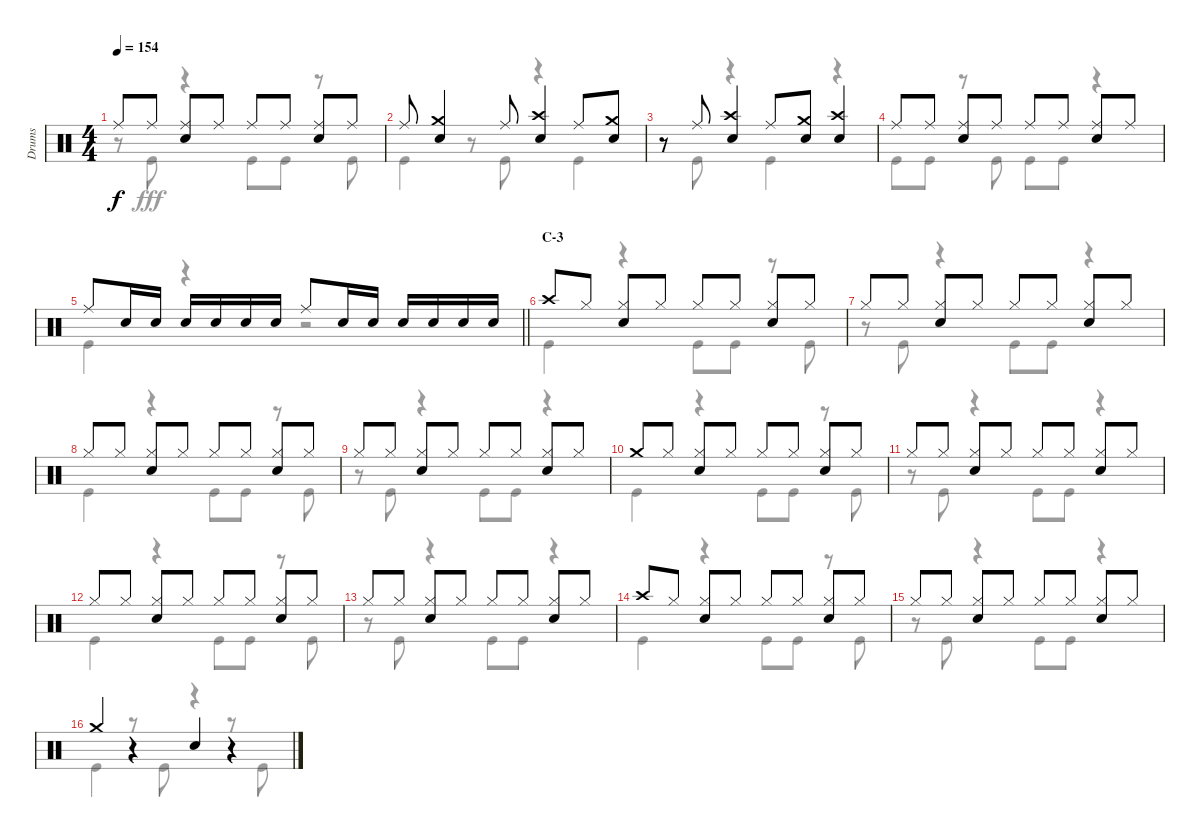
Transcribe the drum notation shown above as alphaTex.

\track ("Drums" "Drums") {instrument percussion}
\staff {score}
\articulation defaults
\voice
\ts (4 4)
\tempo 154
\clef neutral
\ks c "Ride (middle)".8{dy f} "Ride (middle)".8
("Ride (middle)" "Snare (hit) 2").8 "Ride (middle)".8 "Ride (middle)".8 "Ride (middle)".8 ("Ride (middle)" "Snare (hit) 2").8 "Ride (middle)".8 |
"Ride (middle)".8 ("Crash medium (hit)" "Snare (hit) 2").4 "Ride (middle)".8 ("Crash high (hit)" "Snare (hit) 2").4 "Ride (middle)".8 ("Crash medium (hit)" "Snare (hit) 2").8 |
r.8 "Ride (middle)".8 ("Crash high (hit)" "Snare (hit) 2").4 "Ride (middle)".8 ("Crash medium (hit)" "Snare (hit) 2").8 ("Crash high (hit)" "Snare (hit) 2").4 |
"Ride (middle)".8 "Ride (middle)".8 ("Ride (middle)" "Snare (hit) 2").8 "Ride (middle)".8 "Ride (middle)".8 "Ride (middle)".8 ("Ride (middle)" "Snare (hit) 2").8 "Ride (middle)".8 |
\barLineRight lightlight "Ride (middle)".8 "Snare (hit) 2".16 "Snare (hit) 2".16 "Snare (hit) 2".16 "Snare (hit) 2".16 "Snare (hit) 2".16 "Snare (hit) 2".16 "Ride (middle)".8 "Snare (hit) 2".16 "Snare (hit) 2".16 "Snare (hit) 2".16 "Snare (hit) 2".16 "Snare (hit) 2".16 "Snare (hit) 2".16
|
\section ("" "C-3")
"Crash high (hit)".8 "Hi-Hat (closed)".8 ("Hi-Hat (closed)" "Snare (hit) 2").8 "Hi-Hat (closed)".8 "Hi-Hat (closed)".8 "Hi-Hat (closed)".8 ("Hi-Hat (closed)" "Snare (hit) 2").8 "Hi-Hat (closed)".8 |
"Hi-Hat (closed)".8 "Hi-Hat (closed)".8 ("Hi-Hat (closed)" "Snare (hit) 2").8 "Hi-Hat (closed)".8 "Hi-Hat (closed)".8 "Hi-Hat (closed)".8 ("Hi-Hat (closed)" "Snare (hit) 2").8 "Hi-Hat (closed)".8 |
"Hi-Hat (closed)".8 "Hi-Hat (closed)".8 ("Hi-Hat (closed)" "Snare (hit) 2").8 "Hi-Hat (closed)".8 "Hi-Hat (closed)".8 "Hi-Hat (closed)".8 ("Hi-Hat (closed)" "Snare (hit) 2").8 "Hi-Hat (closed)".8 |
"Hi-Hat (closed)".8 "Hi-Hat (closed)".8 ("Hi-Hat (closed)" "Snare (hit) 2").8 "Hi-Hat (closed)".8 "Hi-Hat (closed)".8 "Hi-Hat (closed)".8 ("Hi-Hat (closed)" "Snare (hit) 2").8 "Hi-Hat (closed)".8 |
"Crash medium (hit)".8 "Hi-Hat (closed)".8 ("Hi-Hat (closed)" "Snare (hit) 2").8 "Hi-Hat (closed)".8 "Hi-Hat (closed)".8 "Hi-Hat (closed)".8 ("Hi-Hat (closed)" "Snare (hit) 2").8 "Hi-Hat (closed)".8 |
"Hi-Hat (closed)".8 "Hi-Hat (closed)".8 ("Hi-Hat (closed)" "Snare (hit) 2").8 "Hi-Hat (closed)".8 "Hi-Hat (closed)".8 "Hi-Hat (closed)".8 ("Hi-Hat (closed)" "Snare (hit) 2").8 "Hi-Hat (closed)".8 |
"Hi-Hat (closed)".8 "Hi-Hat (closed)".8 ("Hi-Hat (closed)" "Snare (hit) 2").8 "Hi-Hat (closed)".8 "Hi-Hat (closed)".8 "Hi-Hat (closed)".8 ("Hi-Hat (closed)" "Snare (hit) 2").8 "Hi-Hat (closed)".8 |
"Hi-Hat (closed)".8 "Hi-Hat (closed)".8 ("Hi-Hat (closed)" "Snare (hit) 2").8 "Hi-Hat (closed)".8 "Hi-Hat (closed)".8 "Hi-Hat (closed)".8 ("Hi-Hat (closed)" "Snare (hit) 2").8 "Hi-Hat (closed)".8 |
"Crash high (hit)".8 "Hi-Hat (closed)".8 ("Hi-Hat (closed)" "Snare (hit) 2").8 "Hi-Hat (closed)".8 "Hi-Hat (closed)".8 "Hi-Hat (closed)".8 ("Hi-Hat (closed)" "Snare (hit) 2").8 "Hi-Hat (closed)".8 |
"Hi-Hat (closed)".8 "Hi-Hat (closed)".8 ("Hi-Hat (closed)" "Snare (hit) 2").8 "Hi-Hat (closed)".8 "Hi-Hat (closed)".8 "Hi-Hat (closed)".8 ("Hi-Hat (closed)" "Snare (hit) 2").8 "Hi-Hat (closed)".8 |
"Crash medium (hit)".4 r.4 "Snare (hit) 2".4 r.4
\voice
\clef neutral
\ottava regular
\simile none
\ks c
r.8{dy fff} "Kick (hit)".8 r.4 "Kick (hit)".8 "Kick (hit)".8 r.8 "Kick (hit)".8 |
"Kick (hit)".4 r.8 "Kick (hit)".8 r.4 "Kick (hit)".4 |
r.8 "Kick (hit)".8 r.4 "Kick (hit)".4 r.4 |
"Kick (hit)".8 "Kick (hit)".8 r.8 "Kick (hit)".8 "Kick (hit)".8 "Kick (hit)".8 r.4 |
\barLineRight lightlight "Kick (hit)".4
r.4 r.2 |
"Kick (hit)".4 r.4 "Kick (hit)".8 "Kick (hit)".8 r.8 "Kick (hit)".8 |
r.8 "Kick (hit)".8 r.4 "Kick (hit)".8 "Kick (hit)".8 r.4 |
"Kick (hit)".4 r.4 "Kick (hit)".8 "Kick (hit)".8 r.8 "Kick (hit)".8 |
r.8 "Kick (hit)".8 r.4 "Kick (hit)".8 "Kick (hit)".8 r.4 |
"Kick (hit)".4 r.4 "Kick (hit)".8 "Kick (hit)".8 r.8 "Kick (hit)".8 |
r.8 "Kick (hit)".8 r.4 "Kick (hit)".8 "Kick (hit)".8 r.4 |
"Kick (hit)".4 r.4 "Kick (hit)".8 "Kick (hit)".8 r.8 "Kick (hit)".8 |
r.8 "Kick (hit)".8 r.4 "Kick (hit)".8 "Kick (hit)".8 r.4 |
"Kick (hit)".4 r.4 "Kick (hit)".8 "Kick (hit)".8 r.8 "Kick (hit)".8 |
r.8 "Kick (hit)".8 r.4 "Kick (hit)".8 "Kick (hit)".8 r.4 |
"Kick (hit)".4 r.8 "Kick (hit)".8 r.4 r.8 "Kick (hit)".8
